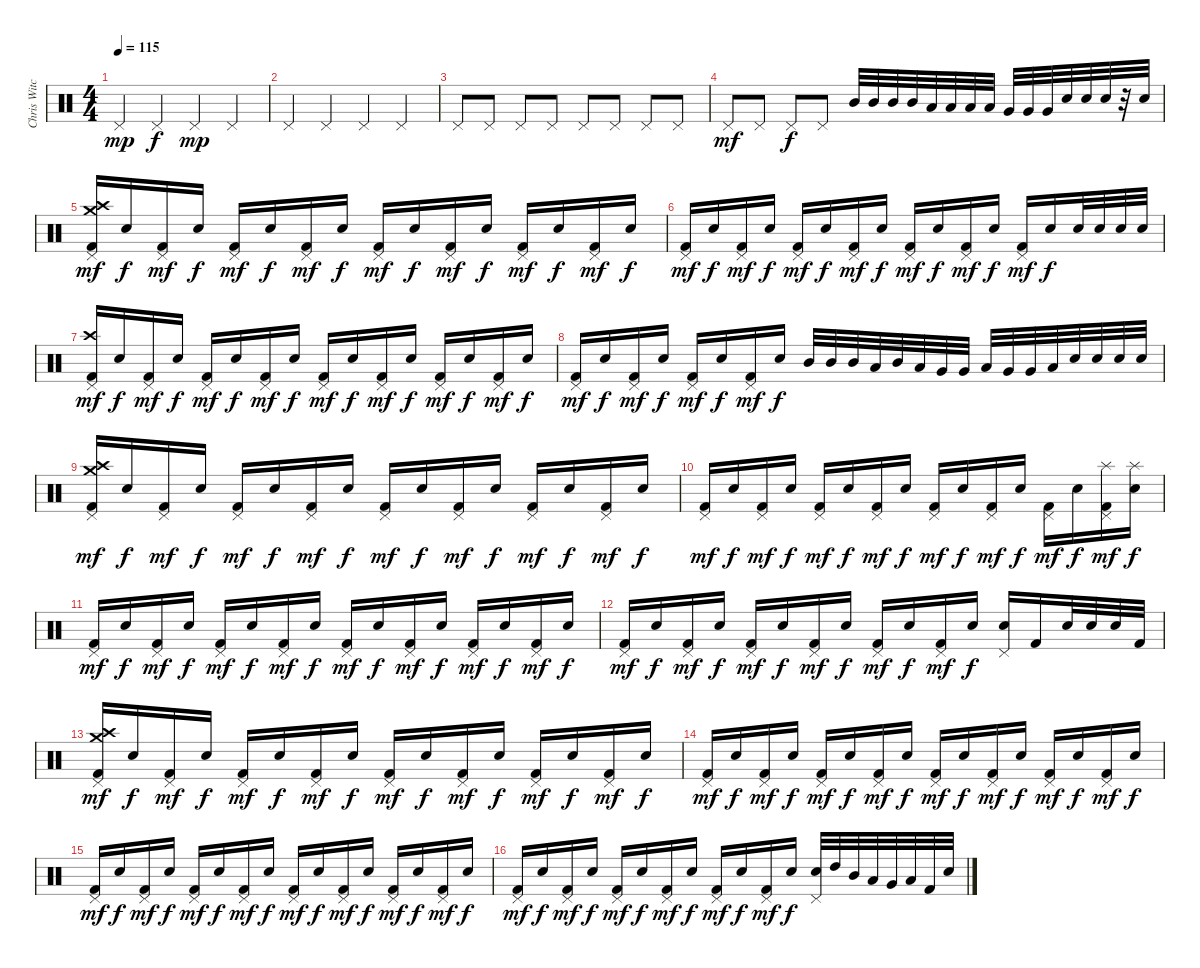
\track ("Chris Witchhunter (Drums)" "Chris Witc") {instrument percussion}
\staff {score}
\articulation defaults
\ts (4 4)
\tempo 115
\clef neutral
\ks c "Pedal Hi-Hat (hit)".4{dy mp} "Pedal Hi-Hat (hit)".4{dy f} "Pedal Hi-Hat (hit)".4{dy mp} "Pedal Hi-Hat (hit)".4
|
"Pedal Hi-Hat (hit)".4 "Pedal Hi-Hat (hit)".4 "Pedal Hi-Hat (hit)".4 "Pedal Hi-Hat (hit)".4 |
"Pedal Hi-Hat (hit)".8 "Pedal Hi-Hat (hit)".8 "Pedal Hi-Hat (hit)".8 "Pedal Hi-Hat (hit)".8 "Pedal Hi-Hat (hit)".8 "Pedal Hi-Hat (hit)".8 "Pedal Hi-Hat (hit)".8 "Pedal Hi-Hat (hit)".8 |
"Pedal Hi-Hat (hit)".8{dy mf} "Pedal Hi-Hat (hit)".8 "Pedal Hi-Hat (hit)".8{dy f} "Pedal Hi-Hat (hit)".8 "Mid Tom (hit)".32 "Mid Tom (hit)".32 "Mid Tom (hit)".32 "Mid Tom (hit)".32 "Low Tom (hit)".32 "Low Tom (hit)".32 "Low Tom (hit)".32 "Low Tom (hit)".32 "Very Low Tom (hit)".32 "Very Low Tom (hit)".32 "Very Low Tom (hit)".32 "Snare (hit) 2".32 "Snare (hit) 2".32 "Snare (hit) 2".32 r.32 "Snare (hit) 2".32 |
("Crash high (hit)" "Crash medium (hit)" "Pedal Hi-Hat (hit)" "Kick (hit) 2").16{dy mf} "Snare (hit) 2".16{dy f} ("Pedal Hi-Hat (hit)" "Kick (hit) 2").16{dy mf} "Snare (hit) 2".16{dy f} ("Pedal Hi-Hat (hit)" "Kick (hit) 2").16{dy mf} "Snare (hit) 2".16{dy f} ("Pedal Hi-Hat (hit)" "Kick (hit) 2").16{dy mf} "Snare (hit) 2".16{dy f} ("Pedal Hi-Hat (hit)" "Kick (hit) 2").16{dy mf} "Snare (hit) 2".16{dy f} ("Pedal Hi-Hat (hit)" "Kick (hit) 2").16{dy mf} "Snare (hit) 2".16{dy f} ("Pedal Hi-Hat (hit)" "Kick (hit) 2").16{dy mf} "Snare (hit) 2".16{dy f} ("Pedal Hi-Hat (hit)" "Kick (hit) 2").16{dy mf} "Snare (hit) 2".16{dy f} |
("Pedal Hi-Hat (hit)" "Kick (hit) 2").16{dy mf} "Snare (hit) 2".16{dy f} ("Pedal Hi-Hat (hit)" "Kick (hit) 2").16{dy mf} "Snare (hit) 2".16{dy f} ("Pedal Hi-Hat (hit)" "Kick (hit) 2").16{dy mf} "Snare (hit) 2".16{dy f} ("Pedal Hi-Hat (hit)" "Kick (hit) 2").16{dy mf} "Snare (hit) 2".16{dy f} ("Pedal Hi-Hat (hit)" "Kick (hit) 2").16{dy mf} "Snare (hit) 2".16{dy f} ("Pedal Hi-Hat (hit)" "Kick (hit) 2").16{dy mf} "Snare (hit) 2".16{dy f} ("Pedal Hi-Hat (hit)" "Kick (hit) 2").16{dy mf} "Snare (hit) 2".16{dy f} "Snare (hit) 2".32 "Snare (hit) 2".32 "Snare (hit) 2".32 "Snare (hit) 2".32 |
("Crash high (hit)" "Pedal Hi-Hat (hit)" "Kick (hit) 2").16{dy mf} "Snare (hit) 2".16{dy f} ("Pedal Hi-Hat (hit)" "Kick (hit) 2").16{dy mf} "Snare (hit) 2".16{dy f} ("Pedal Hi-Hat (hit)" "Kick (hit) 2").16{dy mf} "Snare (hit) 2".16{dy f} ("Pedal Hi-Hat (hit)" "Kick (hit) 2").16{dy mf} "Snare (hit) 2".16{dy f} ("Pedal Hi-Hat (hit)" "Kick (hit) 2").16{dy mf} "Snare (hit) 2".16{dy f} ("Pedal Hi-Hat (hit)" "Kick (hit) 2").16{dy mf} "Snare (hit) 2".16{dy f} ("Pedal Hi-Hat (hit)" "Kick (hit) 2").16{dy mf} "Snare (hit) 2".16{dy f} ("Pedal Hi-Hat (hit)" "Kick (hit) 2").16{dy mf} "Snare (hit) 2".16{dy f} |
("Pedal Hi-Hat (hit)" "Kick (hit) 2").16{dy mf} "Snare (hit) 2".16{dy f} ("Pedal Hi-Hat (hit)" "Kick (hit) 2").16{dy mf} "Snare (hit) 2".16{dy f} ("Pedal Hi-Hat (hit)" "Kick (hit) 2").16{dy mf} "Snare (hit) 2".16{dy f} ("Pedal Hi-Hat (hit)" "Kick (hit) 2").16{dy mf} "Snare (hit) 2".16{dy f} "Mid Tom (hit)".32 "Mid Tom (hit)".32 "Mid Tom (hit)".32 "Low Tom (hit)".32 "Mid Tom (hit)".32 "Low Tom (hit)".32 "Very Low Tom (hit)".32 "Very Low Tom (hit)".32 "Low Tom (hit)".32 "Very Low Tom (hit)".32 "Very Low Tom (hit)".32 "Low Floor Tom (hit)".32 "Snare (hit) 2".32 "Snare (hit) 2".32 "Snare (hit) 2".32 "Snare (hit) 2".32 |
("Crash high (hit)" "Crash medium (hit)" "Pedal Hi-Hat (hit)" "Kick (hit) 2").16{dy mf} "Snare (hit) 2".16{dy f} ("Pedal Hi-Hat (hit)" "Kick (hit) 2").16{dy mf} "Snare (hit) 2".16{dy f} ("Pedal Hi-Hat (hit)" "Kick (hit) 2").16{dy mf} "Snare (hit) 2".16{dy f} ("Pedal Hi-Hat (hit)" "Kick (hit) 2").16{dy mf} "Snare (hit) 2".16{dy f} ("Pedal Hi-Hat (hit)" "Kick (hit) 2").16{dy mf} "Snare (hit) 2".16{dy f} ("Pedal Hi-Hat (hit)" "Kick (hit) 2").16{dy mf} "Snare (hit) 2".16{dy f} ("Pedal Hi-Hat (hit)" "Kick (hit) 2").16{dy mf} "Snare (hit) 2".16{dy f} ("Pedal Hi-Hat (hit)" "Kick (hit) 2").16{dy mf} "Snare (hit) 2".16{dy f} |
("Pedal Hi-Hat (hit)" "Kick (hit) 2").16{dy mf} "Snare (hit) 2".16{dy f} ("Pedal Hi-Hat (hit)" "Kick (hit) 2").16{dy mf} "Snare (hit) 2".16{dy f} ("Pedal Hi-Hat (hit)" "Kick (hit) 2").16{dy mf} "Snare (hit) 2".16{dy f} ("Pedal Hi-Hat (hit)" "Kick (hit) 2").16{dy mf} "Snare (hit) 2".16{dy f} ("Pedal Hi-Hat (hit)" "Kick (hit) 2").16{dy mf} "Snare (hit) 2".16{dy f} ("Pedal Hi-Hat (hit)" "Kick (hit) 2").16{dy mf} "Snare (hit) 2".16{dy f} ("Pedal Hi-Hat (hit)" "Kick (hit) 2").16{dy mf} "Snare (hit) 2".16{dy f} ("Splash (hit)" "Pedal Hi-Hat (hit)" "Kick (hit) 2").16{dy mf} ("Splash (hit)" "Snare (hit) 2").16{dy f} |
("Pedal Hi-Hat (hit)" "Kick (hit) 2").16{dy mf} "Snare (hit) 2".16{dy f} ("Pedal Hi-Hat (hit)" "Kick (hit) 2").16{dy mf} "Snare (hit) 2".16{dy f} ("Pedal Hi-Hat (hit)" "Kick (hit) 2").16{dy mf} "Snare (hit) 2".16{dy f} ("Pedal Hi-Hat (hit)" "Kick (hit) 2").16{dy mf} "Snare (hit) 2".16{dy f} ("Pedal Hi-Hat (hit)" "Kick (hit) 2").16{dy mf} "Snare (hit) 2".16{dy f} ("Pedal Hi-Hat (hit)" "Kick (hit) 2").16{dy mf} "Snare (hit) 2".16{dy f} ("Pedal Hi-Hat (hit)" "Kick (hit) 2").16{dy mf} "Snare (hit) 2".16{dy f} ("Pedal Hi-Hat (hit)" "Kick (hit) 2").16{dy mf} "Snare (hit) 2".16{dy f} |
("Pedal Hi-Hat (hit)" "Kick (hit) 2").16{dy mf} "Snare (hit) 2".16{dy f} ("Pedal Hi-Hat (hit)" "Kick (hit) 2").16{dy mf} "Snare (hit) 2".16{dy f} ("Pedal Hi-Hat (hit)" "Kick (hit) 2").16{dy mf} "Snare (hit) 2".16{dy f} ("Pedal Hi-Hat (hit)" "Kick (hit) 2").16{dy mf} "Snare (hit) 2".16{dy f} ("Pedal Hi-Hat (hit)" "Kick (hit) 2").16{dy mf} "Snare (hit) 2".16{dy f} ("Pedal Hi-Hat (hit)" "Kick (hit) 2").16{dy mf} "Snare (hit) 2".16{dy f} ("Pedal Hi-Hat (hit)" "Snare (hit) 2").16 "Kick (hit) 2".16 "Snare (hit) 2".32 "Snare (hit) 2".32 "Snare (hit) 2".32 "Kick (hit) 2".32 |
("Crash high (hit)" "Crash medium (hit)" "Pedal Hi-Hat (hit)" "Kick (hit) 2").16{dy mf} "Snare (hit) 2".16{dy f} ("Pedal Hi-Hat (hit)" "Kick (hit) 2").16{dy mf} "Snare (hit) 2".16{dy f} ("Pedal Hi-Hat (hit)" "Kick (hit) 2").16{dy mf} "Snare (hit) 2".16{dy f} ("Pedal Hi-Hat (hit)" "Kick (hit) 2").16{dy mf} "Snare (hit) 2".16{dy f} ("Pedal Hi-Hat (hit)" "Kick (hit) 2").16{dy mf} "Snare (hit) 2".16{dy f} ("Pedal Hi-Hat (hit)" "Kick (hit) 2").16{dy mf} "Snare (hit) 2".16{dy f} ("Pedal Hi-Hat (hit)" "Kick (hit) 2").16{dy mf} "Snare (hit) 2".16{dy f} ("Pedal Hi-Hat (hit)" "Kick (hit) 2").16{dy mf} "Snare (hit) 2".16{dy f} |
("Pedal Hi-Hat (hit)" "Kick (hit) 2").16{dy mf} "Snare (hit) 2".16{dy f} ("Pedal Hi-Hat (hit)" "Kick (hit) 2").16{dy mf} "Snare (hit) 2".16{dy f} ("Pedal Hi-Hat (hit)" "Kick (hit) 2").16{dy mf} "Snare (hit) 2".16{dy f} ("Pedal Hi-Hat (hit)" "Kick (hit) 2").16{dy mf} "Snare (hit) 2".16{dy f} ("Pedal Hi-Hat (hit)" "Kick (hit) 2").16{dy mf} "Snare (hit) 2".16{dy f} ("Pedal Hi-Hat (hit)" "Kick (hit) 2").16{dy mf} "Snare (hit) 2".16{dy f} ("Pedal Hi-Hat (hit)" "Kick (hit) 2").16{dy mf} "Snare (hit) 2".16{dy f} ("Pedal Hi-Hat (hit)" "Kick (hit) 2").16{dy mf} "Snare (hit) 2".16{dy f} |
("Pedal Hi-Hat (hit)" "Kick (hit) 2").16{dy mf} "Snare (hit) 2".16{dy f} ("Pedal Hi-Hat (hit)" "Kick (hit) 2").16{dy mf} "Snare (hit) 2".16{dy f} ("Pedal Hi-Hat (hit)" "Kick (hit) 2").16{dy mf} "Snare (hit) 2".16{dy f} ("Pedal Hi-Hat (hit)" "Kick (hit) 2").16{dy mf} "Snare (hit) 2".16{dy f} ("Pedal Hi-Hat (hit)" "Kick (hit) 2").16{dy mf} "Snare (hit) 2".16{dy f} ("Pedal Hi-Hat (hit)" "Kick (hit) 2").16{dy mf} "Snare (hit) 2".16{dy f} ("Pedal Hi-Hat (hit)" "Kick (hit) 2").16{dy mf} "Snare (hit) 2".16{dy f} ("Pedal Hi-Hat (hit)" "Kick (hit) 2").16{dy mf} "Snare (hit) 2".16{dy f} |
("Pedal Hi-Hat (hit)" "Kick (hit) 2").16{dy mf} "Snare (hit) 2".16{dy f} ("Pedal Hi-Hat (hit)" "Kick (hit) 2").16{dy mf} "Snare (hit) 2".16{dy f} ("Pedal Hi-Hat (hit)" "Kick (hit) 2").16{dy mf} "Snare (hit) 2".16{dy f} ("Pedal Hi-Hat (hit)" "Kick (hit) 2").16{dy mf} "Snare (hit) 2".16{dy f} ("Pedal Hi-Hat (hit)" "Kick (hit) 2").16{dy mf} "Snare (hit) 2".16{dy f} ("Pedal Hi-Hat (hit)" "Kick (hit) 2").16{dy mf} "Snare (hit) 2".16{dy f} ("Pedal Hi-Hat (hit)" "Snare (hit) 2").32 "High Tom (hit)".32 "Mid Tom (hit)".32 "Low Tom (hit)".32 "Very Low Tom (hit)".32 "Low Floor Tom (hit)".32 "Kick (hit) 2".32 "Snare (hit) 2".32
